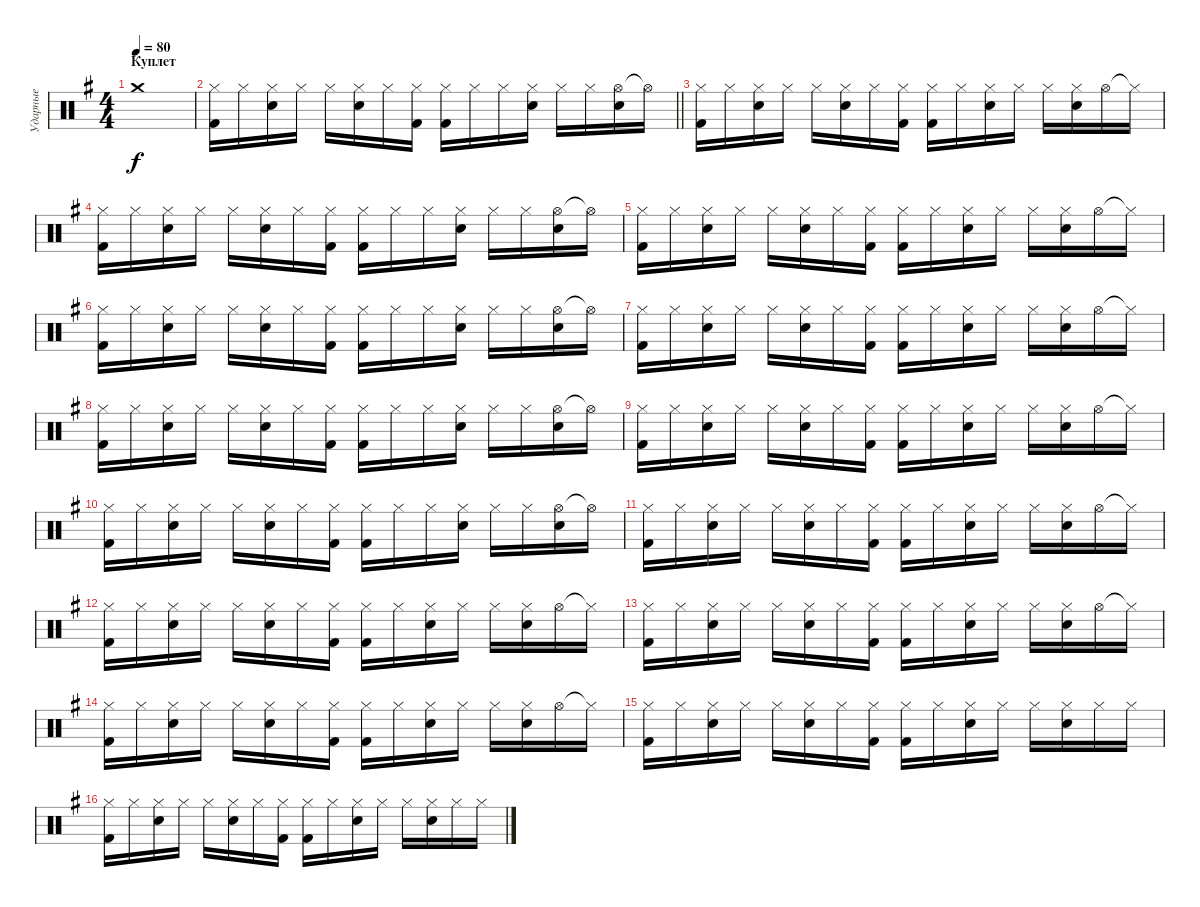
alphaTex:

\track ("Ударные" "Ударные") {instrument percussion}
\staff {score}
\articulation defaults
\ts (4 4)
\section ("" "Куплет")
\tempo 80
\clef neutral
\ks eminor "Crash medium (hit)"{t}.1{dy f}
|
\barLineRight lightlight
("Hi-Hat (closed)" "Kick (hit) 2").16 "Hi-Hat (closed)".16 ("Hi-Hat (closed)" "Electric Snare (hit)").16 "Hi-Hat (closed)".16 "Hi-Hat (closed)".16 ("Hi-Hat (closed)" "Electric Snare (hit)").16 "Hi-Hat (closed)".16 ("Hi-Hat (closed)" "Kick (hit) 2").16 ("Hi-Hat (closed)" "Kick (hit) 2").16 "Hi-Hat (closed)".16 "Hi-Hat (closed)".16 ("Hi-Hat (closed)" "Electric Snare (hit)").16 "Hi-Hat (closed)".16 "Hi-Hat (closed)".16 ("Hi-Hat (open)" "Electric Snare (hit)").16 "Hi-Hat (open)"{t}.16 |
("Hi-Hat (closed)" "Kick (hit) 2").16 "Hi-Hat (closed)".16 ("Hi-Hat (closed)" "Electric Snare (hit)").16 "Hi-Hat (closed)".16 "Hi-Hat (closed)".16 ("Hi-Hat (closed)" "Electric Snare (hit)").16 "Hi-Hat (closed)".16 ("Hi-Hat (closed)" "Kick (hit) 2").16 ("Hi-Hat (closed)" "Kick (hit) 2").16 "Hi-Hat (closed)".16 ("Hi-Hat (closed)" "Electric Snare (hit)").16 "Hi-Hat (closed)".16 "Hi-Hat (closed)".16 ("Hi-Hat (closed)" "Electric Snare (hit)").16 "Hi-Hat (open)".16 "Hi-Hat (closed)"{t}.16 |
("Hi-Hat (closed)" "Kick (hit) 2").16 "Hi-Hat (closed)".16 ("Hi-Hat (closed)" "Electric Snare (hit)").16 "Hi-Hat (closed)".16 "Hi-Hat (closed)".16 ("Hi-Hat (closed)" "Electric Snare (hit)").16 "Hi-Hat (closed)".16 ("Hi-Hat (closed)" "Kick (hit) 2").16 ("Hi-Hat (closed)" "Kick (hit) 2").16 "Hi-Hat (closed)".16 "Hi-Hat (closed)".16 ("Hi-Hat (closed)" "Electric Snare (hit)").16 "Hi-Hat (closed)".16 "Hi-Hat (closed)".16 ("Hi-Hat (open)" "Electric Snare (hit)").16 "Hi-Hat (open)"{t}.16 |
("Hi-Hat (closed)" "Kick (hit) 2").16 "Hi-Hat (closed)".16 ("Hi-Hat (closed)" "Electric Snare (hit)").16 "Hi-Hat (closed)".16 "Hi-Hat (closed)".16 ("Hi-Hat (closed)" "Electric Snare (hit)").16 "Hi-Hat (closed)".16 ("Hi-Hat (closed)" "Kick (hit) 2").16 ("Hi-Hat (closed)" "Kick (hit) 2").16 "Hi-Hat (closed)".16 ("Hi-Hat (closed)" "Electric Snare (hit)").16 "Hi-Hat (closed)".16 "Hi-Hat (closed)".16 ("Hi-Hat (closed)" "Electric Snare (hit)").16 "Hi-Hat (open)".16 "Hi-Hat (closed)"{t}.16 |
("Hi-Hat (closed)" "Kick (hit) 2").16 "Hi-Hat (closed)".16 ("Hi-Hat (closed)" "Electric Snare (hit)").16 "Hi-Hat (closed)".16 "Hi-Hat (closed)".16 ("Hi-Hat (closed)" "Electric Snare (hit)").16 "Hi-Hat (closed)".16 ("Hi-Hat (closed)" "Kick (hit) 2").16 ("Hi-Hat (closed)" "Kick (hit) 2").16 "Hi-Hat (closed)".16 "Hi-Hat (closed)".16 ("Hi-Hat (closed)" "Electric Snare (hit)").16 "Hi-Hat (closed)".16 "Hi-Hat (closed)".16 ("Hi-Hat (open)" "Electric Snare (hit)").16 "Hi-Hat (open)"{t}.16 |
("Hi-Hat (closed)" "Kick (hit) 2").16 "Hi-Hat (closed)".16 ("Hi-Hat (closed)" "Electric Snare (hit)").16 "Hi-Hat (closed)".16 "Hi-Hat (closed)".16 ("Hi-Hat (closed)" "Electric Snare (hit)").16 "Hi-Hat (closed)".16 ("Hi-Hat (closed)" "Kick (hit) 2").16 ("Hi-Hat (closed)" "Kick (hit) 2").16 "Hi-Hat (closed)".16 ("Hi-Hat (closed)" "Electric Snare (hit)").16 "Hi-Hat (closed)".16 "Hi-Hat (closed)".16 ("Hi-Hat (closed)" "Electric Snare (hit)").16 "Hi-Hat (open)".16 "Hi-Hat (closed)"{t}.16 |
("Hi-Hat (closed)" "Kick (hit) 2").16 "Hi-Hat (closed)".16 ("Hi-Hat (closed)" "Electric Snare (hit)").16 "Hi-Hat (closed)".16 "Hi-Hat (closed)".16 ("Hi-Hat (closed)" "Electric Snare (hit)").16 "Hi-Hat (closed)".16 ("Hi-Hat (closed)" "Kick (hit) 2").16 ("Hi-Hat (closed)" "Kick (hit) 2").16 "Hi-Hat (closed)".16 "Hi-Hat (closed)".16 ("Hi-Hat (closed)" "Electric Snare (hit)").16 "Hi-Hat (closed)".16 "Hi-Hat (closed)".16 ("Hi-Hat (open)" "Electric Snare (hit)").16 "Hi-Hat (open)"{t}.16 |
("Hi-Hat (closed)" "Kick (hit) 2").16 "Hi-Hat (closed)".16 ("Hi-Hat (closed)" "Electric Snare (hit)").16 "Hi-Hat (closed)".16 "Hi-Hat (closed)".16 ("Hi-Hat (closed)" "Electric Snare (hit)").16 "Hi-Hat (closed)".16 ("Hi-Hat (closed)" "Kick (hit) 2").16 ("Hi-Hat (closed)" "Kick (hit) 2").16 "Hi-Hat (closed)".16 ("Hi-Hat (closed)" "Electric Snare (hit)").16 "Hi-Hat (closed)".16 "Hi-Hat (closed)".16 ("Hi-Hat (closed)" "Electric Snare (hit)").16 "Hi-Hat (open)".16 "Hi-Hat (closed)"{t}.16 |
("Hi-Hat (closed)" "Kick (hit) 2").16 "Hi-Hat (closed)".16 ("Hi-Hat (closed)" "Electric Snare (hit)").16 "Hi-Hat (closed)".16 "Hi-Hat (closed)".16 ("Hi-Hat (closed)" "Electric Snare (hit)").16 "Hi-Hat (closed)".16 ("Hi-Hat (closed)" "Kick (hit) 2").16 ("Hi-Hat (closed)" "Kick (hit) 2").16 "Hi-Hat (closed)".16 "Hi-Hat (closed)".16 ("Hi-Hat (closed)" "Electric Snare (hit)").16 "Hi-Hat (closed)".16 "Hi-Hat (closed)".16 ("Hi-Hat (open)" "Electric Snare (hit)").16 "Hi-Hat (open)"{t}.16 |
("Hi-Hat (closed)" "Kick (hit) 2").16 "Hi-Hat (closed)".16 ("Hi-Hat (closed)" "Electric Snare (hit)").16 "Hi-Hat (closed)".16 "Hi-Hat (closed)".16 ("Hi-Hat (closed)" "Electric Snare (hit)").16 "Hi-Hat (closed)".16 ("Hi-Hat (closed)" "Kick (hit) 2").16 ("Hi-Hat (closed)" "Kick (hit) 2").16 "Hi-Hat (closed)".16 ("Hi-Hat (closed)" "Electric Snare (hit)").16 "Hi-Hat (closed)".16 "Hi-Hat (closed)".16 ("Hi-Hat (closed)" "Electric Snare (hit)").16 "Hi-Hat (open)".16 "Hi-Hat (closed)"{t}.16 |
("Hi-Hat (closed)" "Kick (hit) 2").16 "Hi-Hat (closed)".16 ("Hi-Hat (closed)" "Electric Snare (hit)").16 "Hi-Hat (closed)".16 "Hi-Hat (closed)".16 ("Hi-Hat (closed)" "Electric Snare (hit)").16 "Hi-Hat (closed)".16 ("Hi-Hat (closed)" "Kick (hit) 2").16 ("Hi-Hat (closed)" "Kick (hit) 2").16 "Hi-Hat (closed)".16 ("Hi-Hat (closed)" "Electric Snare (hit)").16 "Hi-Hat (closed)".16 "Hi-Hat (closed)".16 ("Hi-Hat (closed)" "Electric Snare (hit)").16 "Hi-Hat (open)".16 "Hi-Hat (closed)"{t}.16 |
("Hi-Hat (closed)" "Kick (hit) 2").16 "Hi-Hat (closed)".16 ("Hi-Hat (closed)" "Electric Snare (hit)").16 "Hi-Hat (closed)".16 "Hi-Hat (closed)".16 ("Hi-Hat (closed)" "Electric Snare (hit)").16 "Hi-Hat (closed)".16 ("Hi-Hat (closed)" "Kick (hit) 2").16 ("Hi-Hat (closed)" "Kick (hit) 2").16 "Hi-Hat (closed)".16 ("Hi-Hat (closed)" "Electric Snare (hit)").16 "Hi-Hat (closed)".16 "Hi-Hat (closed)".16 ("Hi-Hat (closed)" "Electric Snare (hit)").16 "Hi-Hat (open)".16 "Hi-Hat (closed)"{t}.16 |
("Hi-Hat (closed)" "Kick (hit) 2").16 "Hi-Hat (closed)".16 ("Hi-Hat (closed)" "Electric Snare (hit)").16 "Hi-Hat (closed)".16 "Hi-Hat (closed)".16 ("Hi-Hat (closed)" "Electric Snare (hit)").16 "Hi-Hat (closed)".16 ("Hi-Hat (closed)" "Kick (hit) 2").16 ("Hi-Hat (closed)" "Kick (hit) 2").16 "Hi-Hat (closed)".16 ("Hi-Hat (closed)" "Electric Snare (hit)").16 "Hi-Hat (closed)".16 "Hi-Hat (closed)".16 ("Hi-Hat (closed)" "Electric Snare (hit)").16 "Hi-Hat (open)".16 "Hi-Hat (closed)"{t}.16 |
("Hi-Hat (closed)" "Kick (hit) 2").16 "Hi-Hat (closed)".16 ("Hi-Hat (closed)" "Electric Snare (hit)").16 "Hi-Hat (closed)".16 "Hi-Hat (closed)".16 ("Hi-Hat (closed)" "Electric Snare (hit)").16 "Hi-Hat (closed)".16 ("Hi-Hat (closed)" "Kick (hit) 2").16 ("Hi-Hat (closed)" "Kick (hit) 2").16 "Hi-Hat (closed)".16 ("Hi-Hat (closed)" "Electric Snare (hit)").16 "Hi-Hat (closed)".16 "Hi-Hat (closed)".16 ("Hi-Hat (closed)" "Electric Snare (hit)").16 "Hi-Hat (closed)".16 "Hi-Hat (closed)".16 |
("Hi-Hat (closed)" "Kick (hit) 2").16 "Hi-Hat (closed)".16 ("Hi-Hat (closed)" "Electric Snare (hit)").16 "Hi-Hat (closed)".16 "Hi-Hat (closed)".16 ("Hi-Hat (closed)" "Electric Snare (hit)").16 "Hi-Hat (closed)".16 ("Hi-Hat (closed)" "Kick (hit) 2").16 ("Hi-Hat (closed)" "Kick (hit) 2").16 "Hi-Hat (closed)".16 ("Hi-Hat (closed)" "Electric Snare (hit)").16 "Hi-Hat (closed)".16 "Hi-Hat (closed)".16 ("Hi-Hat (closed)" "Electric Snare (hit)").16 "Hi-Hat (closed)".16 "Hi-Hat (closed)".16
